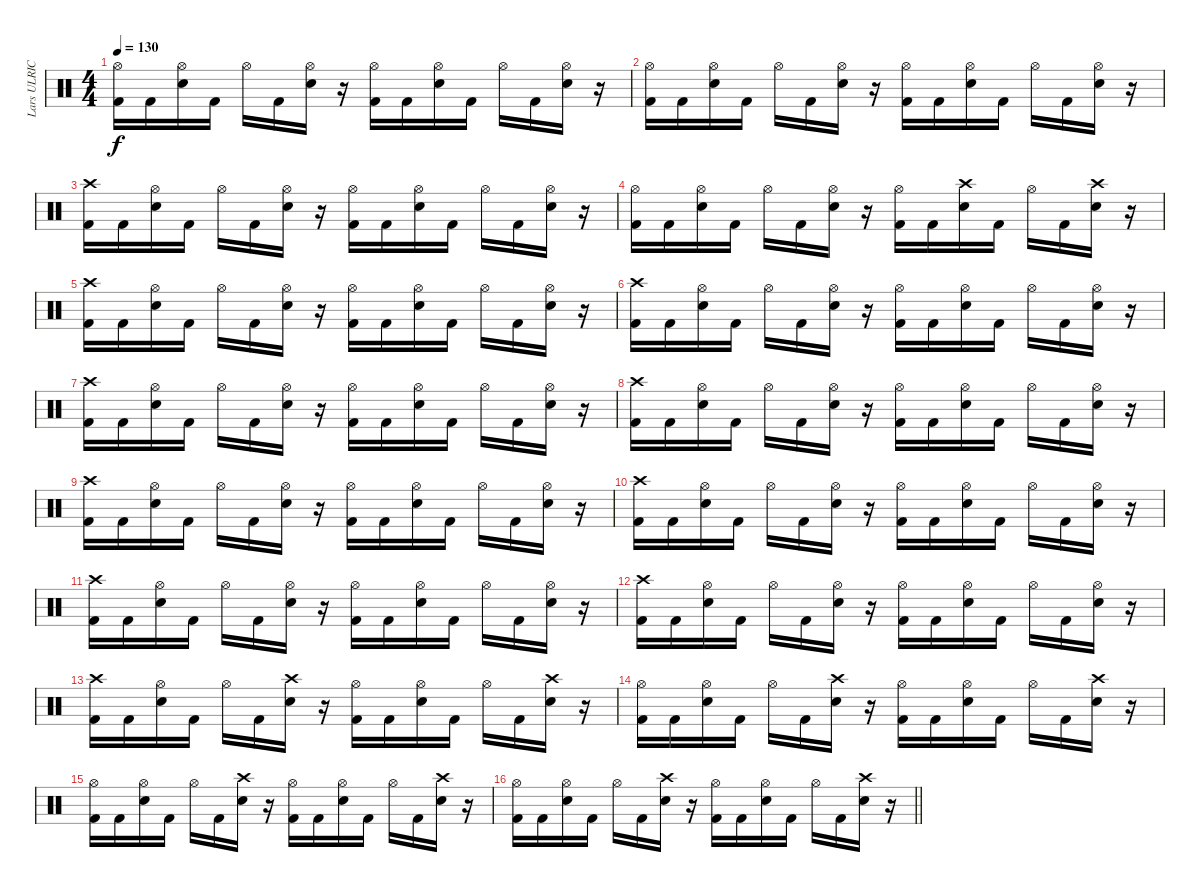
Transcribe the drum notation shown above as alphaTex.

\track ("Lars ULRICH" "Lars ULRIC") {instrument percussion}
\staff {score}
\articulation defaults
\ts (4 4)
\tempo 130
\clef neutral
\ks c
("Hi-Hat (open)" "Kick (hit) 2").16{dy f} "Kick (hit) 2".16 ("Hi-Hat (open)" "Snare (hit) 2").16 "Kick (hit) 2".16 "Hi-Hat (open)".16 "Kick (hit) 2".16 ("Hi-Hat (open)" "Snare (hit) 2").16 r.16 ("Hi-Hat (open)" "Kick (hit) 2").16 "Kick (hit) 2".16 ("Hi-Hat (open)" "Snare (hit) 2").16 "Kick (hit) 2".16 "Hi-Hat (open)".16 "Kick (hit) 2".16 ("Hi-Hat (open)" "Snare (hit) 2").16 r.16 |
("Hi-Hat (open)" "Kick (hit) 2").16 "Kick (hit) 2".16 ("Hi-Hat (open)" "Snare (hit) 2").16 "Kick (hit) 2".16 "Hi-Hat (open)".16 "Kick (hit) 2".16 ("Hi-Hat (open)" "Snare (hit) 2").16 r.16 ("Hi-Hat (open)" "Kick (hit) 2").16 "Kick (hit) 2".16 ("Hi-Hat (open)" "Snare (hit) 2").16 "Kick (hit) 2".16 "Hi-Hat (open)".16 "Kick (hit) 2".16 ("Hi-Hat (open)" "Snare (hit) 2").16 r.16 |
("Crash high (hit)" "Kick (hit) 2").16 "Kick (hit) 2".16 ("Hi-Hat (open)" "Snare (hit) 2").16 "Kick (hit) 2".16 "Hi-Hat (open)".16 "Kick (hit) 2".16 ("Hi-Hat (open)" "Snare (hit) 2").16 r.16 ("Hi-Hat (open)" "Kick (hit) 2").16 "Kick (hit) 2".16 ("Hi-Hat (open)" "Snare (hit) 2").16 "Kick (hit) 2".16 "Hi-Hat (open)".16 "Kick (hit) 2".16 ("Hi-Hat (open)" "Snare (hit) 2").16 r.16 |
("Hi-Hat (open)" "Kick (hit) 2").16 "Kick (hit) 2".16 ("Hi-Hat (open)" "Snare (hit) 2").16 "Kick (hit) 2".16 "Hi-Hat (open)".16 "Kick (hit) 2".16 ("Hi-Hat (open)" "Snare (hit) 2").16 r.16 ("Hi-Hat (open)" "Kick (hit) 2").16 "Kick (hit) 2".16 ("Crash high (hit)" "Snare (hit) 2").16 "Kick (hit) 2".16 "Hi-Hat (open)".16 "Kick (hit) 2".16 ("Crash high (hit)" "Snare (hit) 2").16 r.16 |
("Crash high (hit)" "Kick (hit) 2").16 "Kick (hit) 2".16 ("Hi-Hat (open)" "Snare (hit) 2").16 "Kick (hit) 2".16 "Hi-Hat (open)".16 "Kick (hit) 2".16 ("Hi-Hat (open)" "Snare (hit) 2").16 r.16 ("Hi-Hat (open)" "Kick (hit) 2").16 "Kick (hit) 2".16 ("Hi-Hat (open)" "Snare (hit) 2").16 "Kick (hit) 2".16 "Hi-Hat (open)".16 "Kick (hit) 2".16 ("Hi-Hat (open)" "Snare (hit) 2").16 r.16 |
("Crash high (hit)" "Kick (hit) 2").16 "Kick (hit) 2".16 ("Hi-Hat (open)" "Snare (hit) 2").16 "Kick (hit) 2".16 "Hi-Hat (open)".16 "Kick (hit) 2".16 ("Hi-Hat (open)" "Snare (hit) 2").16 r.16 ("Hi-Hat (open)" "Kick (hit) 2").16 "Kick (hit) 2".16 ("Hi-Hat (open)" "Snare (hit) 2").16 "Kick (hit) 2".16 "Hi-Hat (open)".16 "Kick (hit) 2".16 ("Hi-Hat (open)" "Snare (hit) 2").16 r.16 |
("Crash high (hit)" "Kick (hit) 2").16 "Kick (hit) 2".16 ("Hi-Hat (open)" "Snare (hit) 2").16 "Kick (hit) 2".16 "Hi-Hat (open)".16 "Kick (hit) 2".16 ("Hi-Hat (open)" "Snare (hit) 2").16 r.16 ("Hi-Hat (open)" "Kick (hit) 2").16 "Kick (hit) 2".16 ("Hi-Hat (open)" "Snare (hit) 2").16 "Kick (hit) 2".16 "Hi-Hat (open)".16 "Kick (hit) 2".16 ("Hi-Hat (open)" "Snare (hit) 2").16 r.16 |
("Crash high (hit)" "Kick (hit) 2").16 "Kick (hit) 2".16 ("Hi-Hat (open)" "Snare (hit) 2").16 "Kick (hit) 2".16 "Hi-Hat (open)".16 "Kick (hit) 2".16 ("Hi-Hat (open)" "Snare (hit) 2").16 r.16 ("Hi-Hat (open)" "Kick (hit) 2").16 "Kick (hit) 2".16 ("Hi-Hat (open)" "Snare (hit) 2").16 "Kick (hit) 2".16 "Hi-Hat (open)".16 "Kick (hit) 2".16 ("Hi-Hat (open)" "Snare (hit) 2").16 r.16 |
("Crash high (hit)" "Kick (hit) 2").16 "Kick (hit) 2".16 ("Hi-Hat (open)" "Snare (hit) 2").16 "Kick (hit) 2".16 "Hi-Hat (open)".16 "Kick (hit) 2".16 ("Hi-Hat (open)" "Snare (hit) 2").16 r.16 ("Hi-Hat (open)" "Kick (hit) 2").16 "Kick (hit) 2".16 ("Hi-Hat (open)" "Snare (hit) 2").16 "Kick (hit) 2".16 "Hi-Hat (open)".16 "Kick (hit) 2".16 ("Hi-Hat (open)" "Snare (hit) 2").16 r.16 |
("Crash high (hit)" "Kick (hit) 2").16 "Kick (hit) 2".16 ("Hi-Hat (open)" "Snare (hit) 2").16 "Kick (hit) 2".16 "Hi-Hat (open)".16 "Kick (hit) 2".16 ("Hi-Hat (open)" "Snare (hit) 2").16 r.16 ("Hi-Hat (open)" "Kick (hit) 2").16 "Kick (hit) 2".16 ("Hi-Hat (open)" "Snare (hit) 2").16 "Kick (hit) 2".16 "Hi-Hat (open)".16 "Kick (hit) 2".16 ("Hi-Hat (open)" "Snare (hit) 2").16 r.16 |
("Crash high (hit)" "Kick (hit) 2").16 "Kick (hit) 2".16 ("Hi-Hat (open)" "Snare (hit) 2").16 "Kick (hit) 2".16 "Hi-Hat (open)".16 "Kick (hit) 2".16 ("Hi-Hat (open)" "Snare (hit) 2").16 r.16 ("Hi-Hat (open)" "Kick (hit) 2").16 "Kick (hit) 2".16 ("Hi-Hat (open)" "Snare (hit) 2").16 "Kick (hit) 2".16 "Hi-Hat (open)".16 "Kick (hit) 2".16 ("Hi-Hat (open)" "Snare (hit) 2").16 r.16 |
("Crash high (hit)" "Kick (hit) 2").16 "Kick (hit) 2".16 ("Hi-Hat (open)" "Snare (hit) 2").16 "Kick (hit) 2".16 "Hi-Hat (open)".16 "Kick (hit) 2".16 ("Hi-Hat (open)" "Snare (hit) 2").16 r.16 ("Hi-Hat (open)" "Kick (hit) 2").16 "Kick (hit) 2".16 ("Hi-Hat (open)" "Snare (hit) 2").16 "Kick (hit) 2".16 "Hi-Hat (open)".16 "Kick (hit) 2".16 ("Hi-Hat (open)" "Snare (hit) 2").16 r.16 |
("Crash high (hit)" "Kick (hit) 2").16 "Kick (hit) 2".16 ("Hi-Hat (open)" "Snare (hit) 2").16 "Kick (hit) 2".16 "Hi-Hat (open)".16 "Kick (hit) 2".16 ("Crash high (hit)" "Snare (hit) 2").16 r.16 ("Hi-Hat (open)" "Kick (hit) 2").16 "Kick (hit) 2".16 ("Hi-Hat (open)" "Snare (hit) 2").16 "Kick (hit) 2".16 "Hi-Hat (open)".16 "Kick (hit) 2".16 ("Crash high (hit)" "Snare (hit) 2").16 r.16 |
("Hi-Hat (open)" "Kick (hit) 2").16 "Kick (hit) 2".16 ("Hi-Hat (open)" "Snare (hit) 2").16 "Kick (hit) 2".16 "Hi-Hat (open)".16 "Kick (hit) 2".16 ("Crash high (hit)" "Snare (hit) 2").16 r.16 ("Hi-Hat (open)" "Kick (hit) 2").16 "Kick (hit) 2".16 ("Hi-Hat (open)" "Snare (hit) 2").16 "Kick (hit) 2".16 "Hi-Hat (open)".16 "Kick (hit) 2".16 ("Crash high (hit)" "Snare (hit) 2").16 r.16 |
("Hi-Hat (open)" "Kick (hit) 2").16 "Kick (hit) 2".16 ("Hi-Hat (open)" "Snare (hit) 2").16 "Kick (hit) 2".16 "Hi-Hat (open)".16 "Kick (hit) 2".16 ("Crash high (hit)" "Snare (hit) 2").16 r.16 ("Hi-Hat (open)" "Kick (hit) 2").16 "Kick (hit) 2".16 ("Hi-Hat (open)" "Snare (hit) 2").16 "Kick (hit) 2".16 "Hi-Hat (open)".16 "Kick (hit) 2".16 ("Crash high (hit)" "Snare (hit) 2").16 r.16 |
\barLineRight lightlight
("Hi-Hat (open)" "Kick (hit) 2").16 "Kick (hit) 2".16 ("Hi-Hat (open)" "Snare (hit) 2").16 "Kick (hit) 2".16 "Hi-Hat (open)".16 "Kick (hit) 2".16 ("Crash high (hit)" "Snare (hit) 2").16 r.16 ("Hi-Hat (open)" "Kick (hit) 2").16 "Kick (hit) 2".16 ("Hi-Hat (open)" "Snare (hit) 2").16 "Kick (hit) 2".16 "Hi-Hat (open)".16 "Kick (hit) 2".16 ("Crash high (hit)" "Snare (hit) 2").16 r.16
